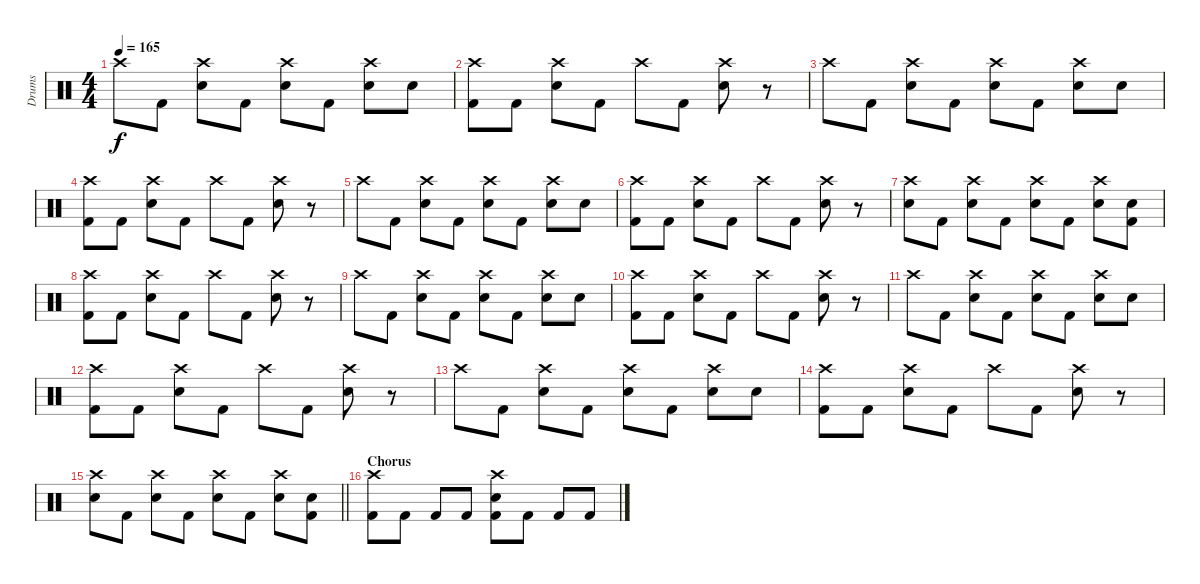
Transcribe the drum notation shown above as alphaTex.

\track ("Drums" "Drums") {instrument percussion}
\staff {score}
\articulation defaults
\ts (4 4)
\tempo 165
\clef neutral
\ks c "Crash high (hit)".8{dy f} "Kick (hit) 2".8
("Crash high (hit)" "Snare (hit) 2").8 "Kick (hit) 2".8 ("Crash high (hit)" "Snare (hit) 2").8 "Kick (hit) 2".8 ("Crash high (hit)" "Snare (hit) 2").8 "Snare (hit) 2".8 |
("Crash high (hit)" "Kick (hit) 2").8 "Kick (hit) 2".8 ("Crash high (hit)" "Snare (hit) 2").8 "Kick (hit) 2".8 "Crash high (hit)".8 "Kick (hit) 2".8 ("Crash high (hit)" "Snare (hit) 2").8 r.8 |
"Crash high (hit)".8 "Kick (hit) 2".8 ("Crash high (hit)" "Snare (hit) 2").8 "Kick (hit) 2".8 ("Crash high (hit)" "Snare (hit) 2").8 "Kick (hit) 2".8 ("Crash high (hit)" "Snare (hit) 2").8 "Snare (hit) 2".8 |
("Crash high (hit)" "Kick (hit) 2").8 "Kick (hit) 2".8 ("Crash high (hit)" "Snare (hit) 2").8 "Kick (hit) 2".8 "Crash high (hit)".8 "Kick (hit) 2".8 ("Crash high (hit)" "Snare (hit) 2").8 r.8 |
"Crash high (hit)".8 "Kick (hit) 2".8 ("Crash high (hit)" "Snare (hit) 2").8 "Kick (hit) 2".8 ("Crash high (hit)" "Snare (hit) 2").8 "Kick (hit) 2".8 ("Crash high (hit)" "Snare (hit) 2").8 "Snare (hit) 2".8 |
("Crash high (hit)" "Kick (hit) 2").8 "Kick (hit) 2".8 ("Crash high (hit)" "Snare (hit) 2").8 "Kick (hit) 2".8 "Crash high (hit)".8 "Kick (hit) 2".8 ("Crash high (hit)" "Snare (hit) 2").8 r.8 |
("Crash high (hit)" "Snare (hit) 2").8 "Kick (hit) 2".8 ("Crash high (hit)" "Snare (hit) 2").8 "Kick (hit) 2".8 ("Crash high (hit)" "Snare (hit) 2").8 "Kick (hit) 2".8 ("Crash high (hit)" "Snare (hit) 2").8 ("Snare (hit) 2" "Kick (hit) 2").8 |
("Crash high (hit)" "Kick (hit) 2").8 "Kick (hit) 2".8 ("Crash high (hit)" "Snare (hit) 2").8 "Kick (hit) 2".8 "Crash high (hit)".8 "Kick (hit) 2".8 ("Crash high (hit)" "Snare (hit) 2").8 r.8 |
"Crash high (hit)".8 "Kick (hit) 2".8 ("Crash high (hit)" "Snare (hit) 2").8 "Kick (hit) 2".8 ("Crash high (hit)" "Snare (hit) 2").8 "Kick (hit) 2".8 ("Crash high (hit)" "Snare (hit) 2").8 "Snare (hit) 2".8 |
("Crash high (hit)" "Kick (hit) 2").8 "Kick (hit) 2".8 ("Crash high (hit)" "Snare (hit) 2").8 "Kick (hit) 2".8 "Crash high (hit)".8 "Kick (hit) 2".8 ("Crash high (hit)" "Snare (hit) 2").8 r.8 |
"Crash high (hit)".8 "Kick (hit) 2".8 ("Crash high (hit)" "Snare (hit) 2").8 "Kick (hit) 2".8 ("Crash high (hit)" "Snare (hit) 2").8 "Kick (hit) 2".8 ("Crash high (hit)" "Snare (hit) 2").8 "Snare (hit) 2".8 |
("Crash high (hit)" "Kick (hit) 2").8 "Kick (hit) 2".8 ("Crash high (hit)" "Snare (hit) 2").8 "Kick (hit) 2".8 "Crash high (hit)".8 "Kick (hit) 2".8 ("Crash high (hit)" "Snare (hit) 2").8 r.8 |
"Crash high (hit)".8 "Kick (hit) 2".8 ("Crash high (hit)" "Snare (hit) 2").8 "Kick (hit) 2".8 ("Crash high (hit)" "Snare (hit) 2").8 "Kick (hit) 2".8 ("Crash high (hit)" "Snare (hit) 2").8 "Snare (hit) 2".8 |
("Crash high (hit)" "Kick (hit) 2").8 "Kick (hit) 2".8 ("Crash high (hit)" "Snare (hit) 2").8 "Kick (hit) 2".8 "Crash high (hit)".8 "Kick (hit) 2".8 ("Crash high (hit)" "Snare (hit) 2").8 r.8 |
\barLineRight lightlight
("Crash high (hit)" "Snare (hit) 2").8 "Kick (hit) 2".8 ("Crash high (hit)" "Snare (hit) 2").8 "Kick (hit) 2".8 ("Crash high (hit)" "Snare (hit) 2").8 "Kick (hit) 2".8 ("Crash high (hit)" "Snare (hit) 2").8 ("Snare (hit) 2" "Kick (hit) 2").8 |
\section ("" "Chorus")
("Crash high (hit)" "Kick (hit) 2").8 "Kick (hit) 2".8 "Kick (hit) 2".8 "Kick (hit) 2".8 ("Crash high (hit)" "Snare (hit) 2" "Kick (hit) 2").8 "Kick (hit) 2".8 "Kick (hit) 2".8 "Kick (hit) 2".8
